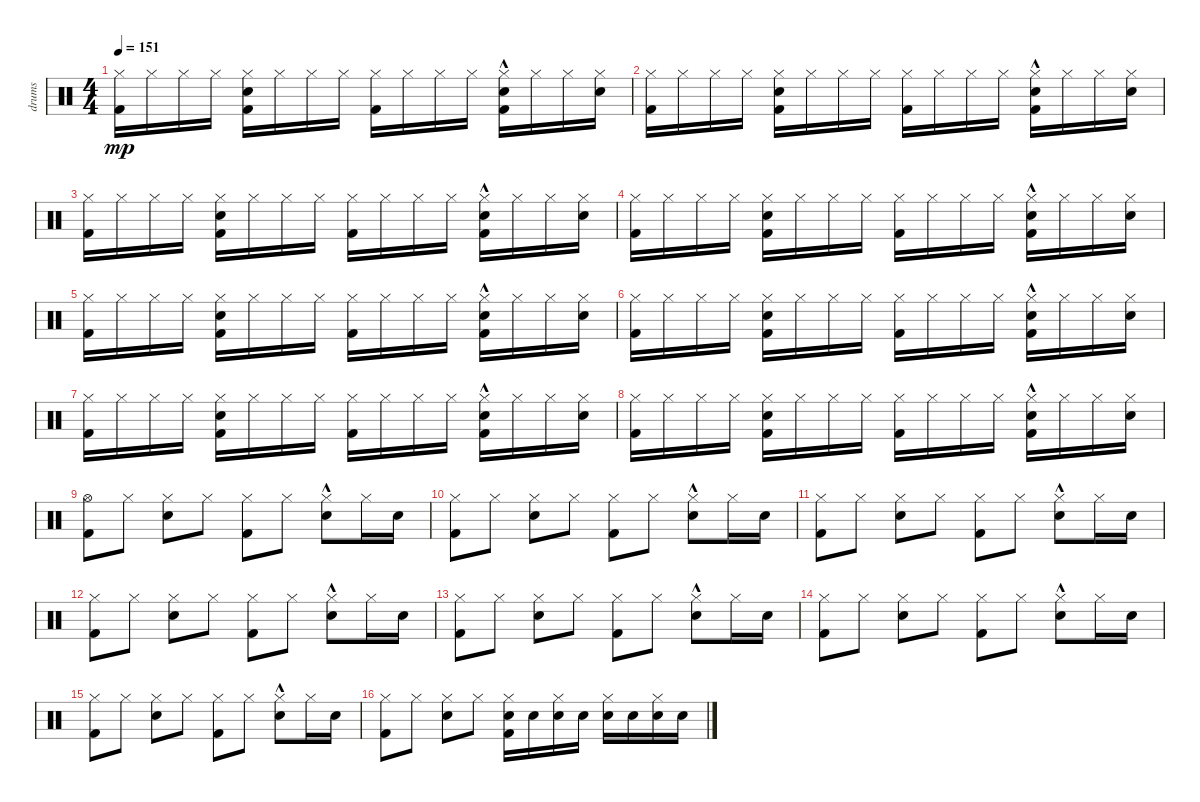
\track ("drums" "drums") {instrument percussion}
\staff {score}
\articulation defaults
\ts (4 4)
\tempo 151
\clef neutral
\ks c
("Hi-Hat (closed)" "Kick (hit) 2").16{dy mp} "Hi-Hat (closed)".16 "Hi-Hat (closed)".16 "Hi-Hat (closed)".16 ("Hi-Hat (closed)" "Kick (hit) 2" "Snare (hit) 2").16 "Hi-Hat (closed)".16 "Hi-Hat (closed)".16 "Hi-Hat (closed)".16 ("Hi-Hat (closed)" "Kick (hit) 2").16 "Hi-Hat (closed)".16 "Hi-Hat (closed)".16 "Hi-Hat (closed)".16 ("Hi-Hat (closed)" "Kick (hit) 2"{hac} "Snare (hit) 2"{hac}).16 "Hi-Hat (closed)".16 "Hi-Hat (closed)".16 ("Hi-Hat (closed)" "Snare (hit) 2").16 |
("Hi-Hat (closed)" "Kick (hit) 2").16 "Hi-Hat (closed)".16 "Hi-Hat (closed)".16 "Hi-Hat (closed)".16 ("Hi-Hat (closed)" "Kick (hit) 2" "Snare (hit) 2").16 "Hi-Hat (closed)".16 "Hi-Hat (closed)".16 "Hi-Hat (closed)".16 ("Hi-Hat (closed)" "Kick (hit) 2").16 "Hi-Hat (closed)".16 "Hi-Hat (closed)".16 "Hi-Hat (closed)".16 ("Hi-Hat (closed)" "Kick (hit) 2"{hac} "Snare (hit) 2"{hac}).16 "Hi-Hat (closed)".16 "Hi-Hat (closed)".16 ("Hi-Hat (closed)" "Snare (hit) 2").16 |
("Hi-Hat (closed)" "Kick (hit) 2").16 "Hi-Hat (closed)".16 "Hi-Hat (closed)".16 "Hi-Hat (closed)".16 ("Hi-Hat (closed)" "Kick (hit) 2" "Snare (hit) 2").16 "Hi-Hat (closed)".16 "Hi-Hat (closed)".16 "Hi-Hat (closed)".16 ("Hi-Hat (closed)" "Kick (hit) 2").16 "Hi-Hat (closed)".16 "Hi-Hat (closed)".16 "Hi-Hat (closed)".16 ("Hi-Hat (closed)" "Kick (hit) 2"{hac} "Snare (hit) 2"{hac}).16 "Hi-Hat (closed)".16 "Hi-Hat (closed)".16 ("Hi-Hat (closed)" "Snare (hit) 2").16 |
("Hi-Hat (closed)" "Kick (hit) 2").16 "Hi-Hat (closed)".16 "Hi-Hat (closed)".16 "Hi-Hat (closed)".16 ("Hi-Hat (closed)" "Kick (hit) 2" "Snare (hit) 2").16 "Hi-Hat (closed)".16 "Hi-Hat (closed)".16 "Hi-Hat (closed)".16 ("Hi-Hat (closed)" "Kick (hit) 2").16 "Hi-Hat (closed)".16 "Hi-Hat (closed)".16 "Hi-Hat (closed)".16 ("Hi-Hat (closed)" "Kick (hit) 2"{hac} "Snare (hit) 2"{hac}).16 "Hi-Hat (closed)".16 "Hi-Hat (closed)".16 ("Hi-Hat (closed)" "Snare (hit) 2").16 |
("Hi-Hat (closed)" "Kick (hit) 2").16 "Hi-Hat (closed)".16 "Hi-Hat (closed)".16 "Hi-Hat (closed)".16 ("Hi-Hat (closed)" "Kick (hit) 2" "Snare (hit) 2").16 "Hi-Hat (closed)".16 "Hi-Hat (closed)".16 "Hi-Hat (closed)".16 ("Hi-Hat (closed)" "Kick (hit) 2").16 "Hi-Hat (closed)".16 "Hi-Hat (closed)".16 "Hi-Hat (closed)".16 ("Hi-Hat (closed)" "Kick (hit) 2"{hac} "Snare (hit) 2"{hac}).16 "Hi-Hat (closed)".16 "Hi-Hat (closed)".16 ("Hi-Hat (closed)" "Snare (hit) 2").16 |
("Hi-Hat (closed)" "Kick (hit) 2").16 "Hi-Hat (closed)".16 "Hi-Hat (closed)".16 "Hi-Hat (closed)".16 ("Hi-Hat (closed)" "Kick (hit) 2" "Snare (hit) 2").16 "Hi-Hat (closed)".16 "Hi-Hat (closed)".16 "Hi-Hat (closed)".16 ("Hi-Hat (closed)" "Kick (hit) 2").16 "Hi-Hat (closed)".16 "Hi-Hat (closed)".16 "Hi-Hat (closed)".16 ("Hi-Hat (closed)" "Kick (hit) 2"{hac} "Snare (hit) 2"{hac}).16 "Hi-Hat (closed)".16 "Hi-Hat (closed)".16 ("Hi-Hat (closed)" "Snare (hit) 2").16 |
("Hi-Hat (closed)" "Kick (hit) 2").16 "Hi-Hat (closed)".16 "Hi-Hat (closed)".16 "Hi-Hat (closed)".16 ("Hi-Hat (closed)" "Kick (hit) 2" "Snare (hit) 2").16 "Hi-Hat (closed)".16 "Hi-Hat (closed)".16 "Hi-Hat (closed)".16 ("Hi-Hat (closed)" "Kick (hit) 2").16 "Hi-Hat (closed)".16 "Hi-Hat (closed)".16 "Hi-Hat (closed)".16 ("Hi-Hat (closed)" "Kick (hit) 2"{hac} "Snare (hit) 2"{hac}).16 "Hi-Hat (closed)".16 "Hi-Hat (closed)".16 ("Hi-Hat (closed)" "Snare (hit) 2").16 |
("Hi-Hat (closed)" "Kick (hit) 2").16 "Hi-Hat (closed)".16 "Hi-Hat (closed)".16 "Hi-Hat (closed)".16 ("Hi-Hat (closed)" "Kick (hit) 2" "Snare (hit) 2").16 "Hi-Hat (closed)".16 "Hi-Hat (closed)".16 "Hi-Hat (closed)".16 ("Hi-Hat (closed)" "Kick (hit) 2").16 "Hi-Hat (closed)".16 "Hi-Hat (closed)".16 "Hi-Hat (closed)".16 ("Hi-Hat (closed)" "Kick (hit) 2"{hac} "Snare (hit) 2"{hac}).16 "Hi-Hat (closed)".16 "Hi-Hat (closed)".16 ("Hi-Hat (closed)" "Snare (hit) 2").16 |
("Hi-Hat (open)" "Kick (hit) 2").8 "Hi-Hat (closed)".8 ("Hi-Hat (closed)" "Snare (hit) 2").8 "Hi-Hat (closed)".8 ("Hi-Hat (closed)" "Kick (hit) 2").8 "Hi-Hat (closed)".8 ("Hi-Hat (closed)" "Snare (hit) 2"{hac}).8 "Hi-Hat (closed)".16 "Snare (hit) 2".16 |
("Hi-Hat (closed)" "Kick (hit) 2").8 "Hi-Hat (closed)".8 ("Hi-Hat (closed)" "Snare (hit) 2").8 "Hi-Hat (closed)".8 ("Hi-Hat (closed)" "Kick (hit) 2").8 "Hi-Hat (closed)".8 ("Hi-Hat (closed)" "Snare (hit) 2"{hac}).8 "Hi-Hat (closed)".16 "Snare (hit) 2".16 |
("Hi-Hat (closed)" "Kick (hit) 2").8 "Hi-Hat (closed)".8 ("Hi-Hat (closed)" "Snare (hit) 2").8 "Hi-Hat (closed)".8 ("Hi-Hat (closed)" "Kick (hit) 2").8 "Hi-Hat (closed)".8 ("Hi-Hat (closed)" "Snare (hit) 2"{hac}).8 "Hi-Hat (closed)".16 "Snare (hit) 2".16 |
("Hi-Hat (closed)" "Kick (hit) 2").8 "Hi-Hat (closed)".8 ("Hi-Hat (closed)" "Snare (hit) 2").8 "Hi-Hat (closed)".8 ("Hi-Hat (closed)" "Kick (hit) 2").8 "Hi-Hat (closed)".8 ("Hi-Hat (closed)" "Snare (hit) 2"{hac}).8 "Hi-Hat (closed)".16 "Snare (hit) 2".16 |
("Hi-Hat (closed)" "Kick (hit) 2").8 "Hi-Hat (closed)".8 ("Hi-Hat (closed)" "Snare (hit) 2").8 "Hi-Hat (closed)".8 ("Hi-Hat (closed)" "Kick (hit) 2").8 "Hi-Hat (closed)".8 ("Hi-Hat (closed)" "Snare (hit) 2"{hac}).8 "Hi-Hat (closed)".16 "Snare (hit) 2".16 |
("Hi-Hat (closed)" "Kick (hit) 2").8 "Hi-Hat (closed)".8 ("Hi-Hat (closed)" "Snare (hit) 2").8 "Hi-Hat (closed)".8 ("Hi-Hat (closed)" "Kick (hit) 2").8 "Hi-Hat (closed)".8 ("Hi-Hat (closed)" "Snare (hit) 2"{hac}).8 "Hi-Hat (closed)".16 "Snare (hit) 2".16 |
("Hi-Hat (closed)" "Kick (hit) 2").8 "Hi-Hat (closed)".8 ("Hi-Hat (closed)" "Snare (hit) 2").8 "Hi-Hat (closed)".8 ("Hi-Hat (closed)" "Kick (hit) 2").8 "Hi-Hat (closed)".8 ("Hi-Hat (closed)" "Snare (hit) 2"{hac}).8 "Hi-Hat (closed)".16 "Snare (hit) 2".16 |
("Hi-Hat (closed)" "Kick (hit) 2").8 "Hi-Hat (closed)".8 ("Hi-Hat (closed)" "Snare (hit) 2").8 "Hi-Hat (closed)".8 ("Hi-Hat (closed)" "Kick (hit) 2" "Snare (hit) 2").16 "Snare (hit) 2".16 ("Hi-Hat (closed)" "Snare (hit) 2").16 "Snare (hit) 2".16 ("Hi-Hat (closed)" "Snare (hit) 2").16 "Snare (hit) 2".16 ("Hi-Hat (closed)" "Snare (hit) 2").16 "Snare (hit) 2".16
